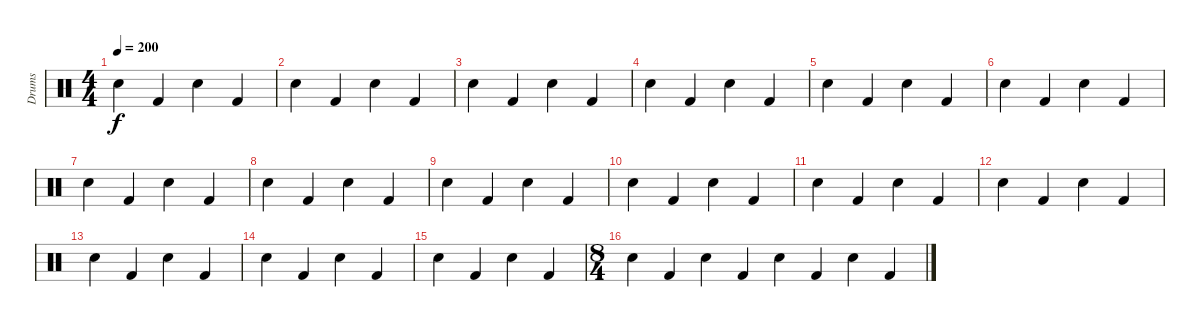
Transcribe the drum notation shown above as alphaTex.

\track ("Drums" "Drums") {instrument percussion}
\staff {score}
\articulation defaults
\ts (4 4)
\tempo 200
\clef neutral
\ks c "Snare (hit) 2".4{dy f} "Kick (hit) 2".4 "Snare (hit) 2".4 "Kick (hit) 2".4
|
"Snare (hit) 2".4 "Kick (hit) 2".4 "Snare (hit) 2".4 "Kick (hit) 2".4 |
"Snare (hit) 2".4 "Kick (hit) 2".4 "Snare (hit) 2".4 "Kick (hit) 2".4 |
"Snare (hit) 2".4 "Kick (hit) 2".4 "Snare (hit) 2".4 "Kick (hit) 2".4 |
"Snare (hit) 2".4 "Kick (hit) 2".4 "Snare (hit) 2".4 "Kick (hit) 2".4 |
"Snare (hit) 2".4 "Kick (hit) 2".4 "Snare (hit) 2".4 "Kick (hit) 2".4 |
"Snare (hit) 2".4 "Kick (hit) 2".4 "Snare (hit) 2".4 "Kick (hit) 2".4 |
"Snare (hit) 2".4 "Kick (hit) 2".4 "Snare (hit) 2".4 "Kick (hit) 2".4 |
"Snare (hit) 2".4 "Kick (hit) 2".4 "Snare (hit) 2".4 "Kick (hit) 2".4 |
"Snare (hit) 2".4 "Kick (hit) 2".4 "Snare (hit) 2".4 "Kick (hit) 2".4 |
"Snare (hit) 2".4 "Kick (hit) 2".4 "Snare (hit) 2".4 "Kick (hit) 2".4 |
"Snare (hit) 2".4 "Kick (hit) 2".4 "Snare (hit) 2".4 "Kick (hit) 2".4 |
"Snare (hit) 2".4 "Kick (hit) 2".4 "Snare (hit) 2".4 "Kick (hit) 2".4 |
"Snare (hit) 2".4 "Kick (hit) 2".4 "Snare (hit) 2".4 "Kick (hit) 2".4 |
"Snare (hit) 2".4 "Kick (hit) 2".4 "Snare (hit) 2".4 "Kick (hit) 2".4 |
\ts (8 4)
"Snare (hit) 2".4 "Kick (hit) 2".4 "Snare (hit) 2".4 "Kick (hit) 2".4 "Snare (hit) 2".4 "Kick (hit) 2".4 "Snare (hit) 2".4 "Kick (hit) 2".4
